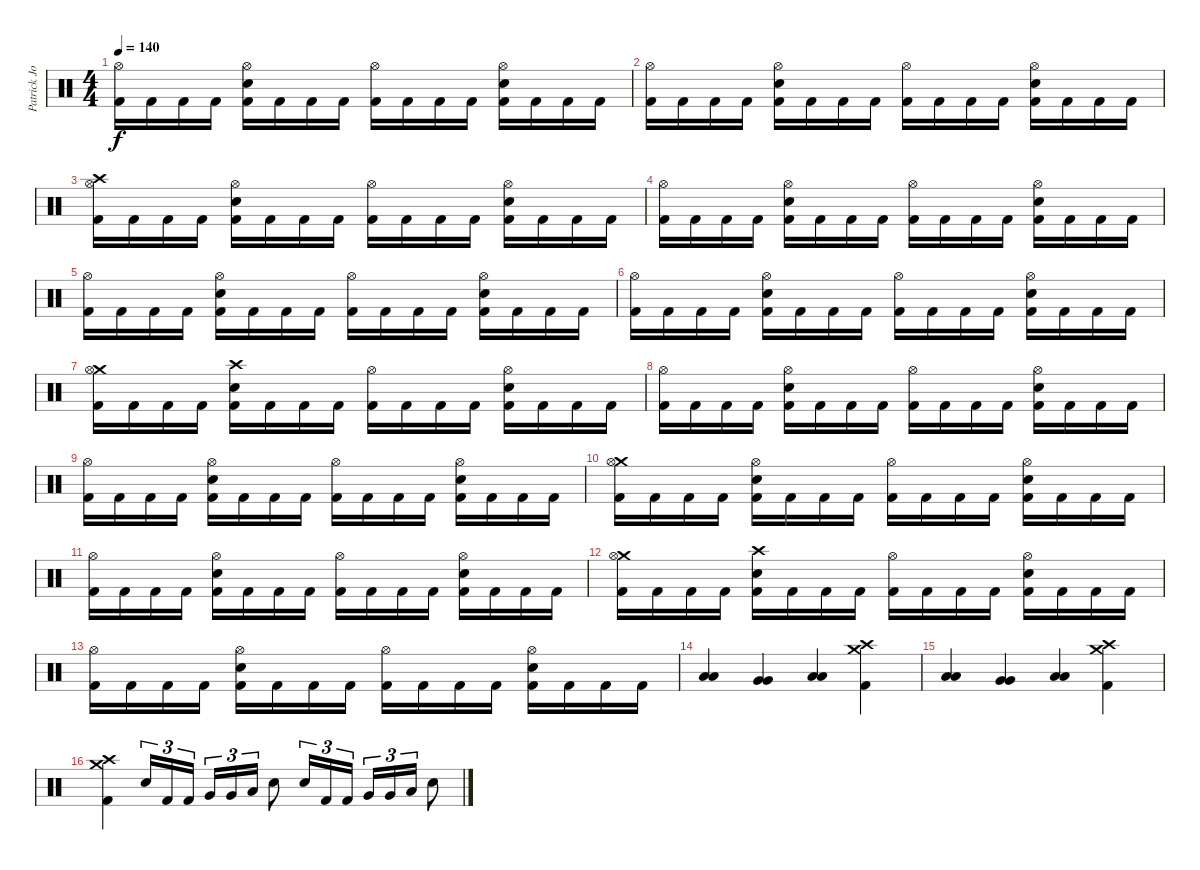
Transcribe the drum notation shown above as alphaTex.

\track ("Patrick Johansson" "Patrick Jo") {instrument percussion}
\staff {score}
\articulation defaults
\ts (4 4)
\tempo 140
\clef neutral
\ks c
("Hi-Hat (open)" "Kick (hit) 2").16{dy f} "Kick (hit) 2".16 "Kick (hit) 2".16 "Kick (hit) 2".16 ("Hi-Hat (open)" "Snare (hit) 2" "Kick (hit) 2").16 "Kick (hit) 2".16 "Kick (hit) 2".16 "Kick (hit) 2".16 ("Hi-Hat (open)" "Kick (hit) 2").16 "Kick (hit) 2".16 "Kick (hit) 2".16 "Kick (hit) 2".16 ("Hi-Hat (open)" "Snare (hit) 2" "Kick (hit) 2").16 "Kick (hit) 2".16 "Kick (hit) 2".16 "Kick (hit) 2".16 |
("Hi-Hat (open)" "Kick (hit) 2").16 "Kick (hit) 2".16 "Kick (hit) 2".16 "Kick (hit) 2".16 ("Hi-Hat (open)" "Snare (hit) 2" "Kick (hit) 2").16 "Kick (hit) 2".16 "Kick (hit) 2".16 "Kick (hit) 2".16 ("Hi-Hat (open)" "Kick (hit) 2").16 "Kick (hit) 2".16 "Kick (hit) 2".16 "Kick (hit) 2".16 ("Hi-Hat (open)" "Snare (hit) 2" "Kick (hit) 2").16 "Kick (hit) 2".16 "Kick (hit) 2".16 "Kick (hit) 2".16 |
("Crash high (hit)" "Hi-Hat (open)" "Kick (hit) 2").16 "Kick (hit) 2".16 "Kick (hit) 2".16 "Kick (hit) 2".16 ("Hi-Hat (open)" "Snare (hit) 2" "Kick (hit) 2").16 "Kick (hit) 2".16 "Kick (hit) 2".16 "Kick (hit) 2".16 ("Hi-Hat (open)" "Kick (hit) 2").16 "Kick (hit) 2".16 "Kick (hit) 2".16 "Kick (hit) 2".16 ("Hi-Hat (open)" "Snare (hit) 2" "Kick (hit) 2").16 "Kick (hit) 2".16 "Kick (hit) 2".16 "Kick (hit) 2".16 |
("Hi-Hat (open)" "Kick (hit) 2").16 "Kick (hit) 2".16 "Kick (hit) 2".16 "Kick (hit) 2".16 ("Hi-Hat (open)" "Snare (hit) 2" "Kick (hit) 2").16 "Kick (hit) 2".16 "Kick (hit) 2".16 "Kick (hit) 2".16 ("Hi-Hat (open)" "Kick (hit) 2").16 "Kick (hit) 2".16 "Kick (hit) 2".16 "Kick (hit) 2".16 ("Hi-Hat (open)" "Snare (hit) 2" "Kick (hit) 2").16 "Kick (hit) 2".16 "Kick (hit) 2".16 "Kick (hit) 2".16 |
("Hi-Hat (open)" "Kick (hit) 2").16 "Kick (hit) 2".16 "Kick (hit) 2".16 "Kick (hit) 2".16 ("Hi-Hat (open)" "Snare (hit) 2" "Kick (hit) 2").16 "Kick (hit) 2".16 "Kick (hit) 2".16 "Kick (hit) 2".16 ("Hi-Hat (open)" "Kick (hit) 2").16 "Kick (hit) 2".16 "Kick (hit) 2".16 "Kick (hit) 2".16 ("Hi-Hat (open)" "Snare (hit) 2" "Kick (hit) 2").16 "Kick (hit) 2".16 "Kick (hit) 2".16 "Kick (hit) 2".16 |
("Hi-Hat (open)" "Kick (hit) 2").16 "Kick (hit) 2".16 "Kick (hit) 2".16 "Kick (hit) 2".16 ("Hi-Hat (open)" "Snare (hit) 2" "Kick (hit) 2").16 "Kick (hit) 2".16 "Kick (hit) 2".16 "Kick (hit) 2".16 ("Hi-Hat (open)" "Kick (hit) 2").16 "Kick (hit) 2".16 "Kick (hit) 2".16 "Kick (hit) 2".16 ("Hi-Hat (open)" "Snare (hit) 2" "Kick (hit) 2").16 "Kick (hit) 2".16 "Kick (hit) 2".16 "Kick (hit) 2".16 |
("Crash medium (hit)" "Hi-Hat (open)" "Kick (hit) 2").16 "Kick (hit) 2".16 "Kick (hit) 2".16 "Kick (hit) 2".16 ("Crash high (hit)" "Snare (hit) 2" "Kick (hit) 2").16 "Kick (hit) 2".16 "Kick (hit) 2".16 "Kick (hit) 2".16 ("Hi-Hat (open)" "Kick (hit) 2").16 "Kick (hit) 2".16 "Kick (hit) 2".16 "Kick (hit) 2".16 ("Hi-Hat (open)" "Snare (hit) 2" "Kick (hit) 2").16 "Kick (hit) 2".16 "Kick (hit) 2".16 "Kick (hit) 2".16 |
("Hi-Hat (open)" "Kick (hit) 2").16 "Kick (hit) 2".16 "Kick (hit) 2".16 "Kick (hit) 2".16 ("Hi-Hat (open)" "Snare (hit) 2" "Kick (hit) 2").16 "Kick (hit) 2".16 "Kick (hit) 2".16 "Kick (hit) 2".16 ("Hi-Hat (open)" "Kick (hit) 2").16 "Kick (hit) 2".16 "Kick (hit) 2".16 "Kick (hit) 2".16 ("Hi-Hat (open)" "Snare (hit) 2" "Kick (hit) 2").16 "Kick (hit) 2".16 "Kick (hit) 2".16 "Kick (hit) 2".16 |
("Hi-Hat (open)" "Kick (hit) 2").16 "Kick (hit) 2".16 "Kick (hit) 2".16 "Kick (hit) 2".16 ("Hi-Hat (open)" "Snare (hit) 2" "Kick (hit) 2").16 "Kick (hit) 2".16 "Kick (hit) 2".16 "Kick (hit) 2".16 ("Hi-Hat (open)" "Kick (hit) 2").16 "Kick (hit) 2".16 "Kick (hit) 2".16 "Kick (hit) 2".16 ("Hi-Hat (open)" "Snare (hit) 2" "Kick (hit) 2").16 "Kick (hit) 2".16 "Kick (hit) 2".16 "Kick (hit) 2".16 |
("Crash medium (hit)" "Hi-Hat (open)" "Kick (hit) 2").16 "Kick (hit) 2".16 "Kick (hit) 2".16 "Kick (hit) 2".16 ("Hi-Hat (open)" "Snare (hit) 2" "Kick (hit) 2").16 "Kick (hit) 2".16 "Kick (hit) 2".16 "Kick (hit) 2".16 ("Hi-Hat (open)" "Kick (hit) 2").16 "Kick (hit) 2".16 "Kick (hit) 2".16 "Kick (hit) 2".16 ("Hi-Hat (open)" "Snare (hit) 2" "Kick (hit) 2").16 "Kick (hit) 2".16 "Kick (hit) 2".16 "Kick (hit) 2".16 |
("Hi-Hat (open)" "Kick (hit) 2").16 "Kick (hit) 2".16 "Kick (hit) 2".16 "Kick (hit) 2".16 ("Hi-Hat (open)" "Snare (hit) 2" "Kick (hit) 2").16 "Kick (hit) 2".16 "Kick (hit) 2".16 "Kick (hit) 2".16 ("Hi-Hat (open)" "Kick (hit) 2").16 "Kick (hit) 2".16 "Kick (hit) 2".16 "Kick (hit) 2".16 ("Hi-Hat (open)" "Snare (hit) 2" "Kick (hit) 2").16 "Kick (hit) 2".16 "Kick (hit) 2".16 "Kick (hit) 2".16 |
("Crash medium (hit)" "Hi-Hat (open)" "Kick (hit) 2").16 "Kick (hit) 2".16 "Kick (hit) 2".16 "Kick (hit) 2".16 ("Crash high (hit)" "Snare (hit) 2" "Kick (hit) 2").16 "Kick (hit) 2".16 "Kick (hit) 2".16 "Kick (hit) 2".16 ("Hi-Hat (open)" "Kick (hit) 2").16 "Kick (hit) 2".16 "Kick (hit) 2".16 "Kick (hit) 2".16 ("Hi-Hat (open)" "Snare (hit) 2" "Kick (hit) 2").16 "Kick (hit) 2".16 "Kick (hit) 2".16 "Kick (hit) 2".16 |
("Hi-Hat (open)" "Kick (hit) 2").16 "Kick (hit) 2".16 "Kick (hit) 2".16 "Kick (hit) 2".16 ("Hi-Hat (open)" "Snare (hit) 2" "Kick (hit) 2").16 "Kick (hit) 2".16 "Kick (hit) 2".16 "Kick (hit) 2".16 ("Hi-Hat (open)" "Kick (hit) 2").16 "Kick (hit) 2".16 "Kick (hit) 2".16 "Kick (hit) 2".16 ("Hi-Hat (open)" "Snare (hit) 2" "Kick (hit) 2").16 "Kick (hit) 2".16 "Kick (hit) 2".16 "Kick (hit) 2".16 |
("Low Tom (hit)" "Low Tom (hit)").4 ("Very Low Tom (hit)" "Very Low Tom (hit)").4 ("Low Tom (hit)" "Low Tom (hit)").4 ("Crash medium (hit)" "Crash high (hit)" "Kick (hit) 2").4 |
("Low Tom (hit)" "Low Tom (hit)").4 ("Very Low Tom (hit)" "Very Low Tom (hit)").4 ("Low Tom (hit)" "Low Tom (hit)").4 ("Crash medium (hit)" "Crash high (hit)" "Kick (hit) 2").4 |
("Crash medium (hit)" "Crash high (hit)" "Kick (hit) 2").4 "Snare (hit) 2".16{tu (3 2)} "Kick (hit) 2".16{tu (3 2)} "Kick (hit) 2".16{tu (3 2) beam splitsecondary} "Very Low Tom (hit)".16{tu (3 2)} "Very Low Tom (hit)".16{tu (3 2)} "Low Floor Tom (hit)".16{tu (3 2)} "Snare (hit) 2".8 "Snare (hit) 2".16{tu (3 2)} "Kick (hit) 2".16{tu (3 2)} "Kick (hit) 2".16{tu (3 2)} "Very Low Tom (hit)".16{tu (3 2)} "Very Low Tom (hit)".16{tu (3 2)} "Low Floor Tom (hit)".16{tu (3 2)} "Snare (hit) 2".8
